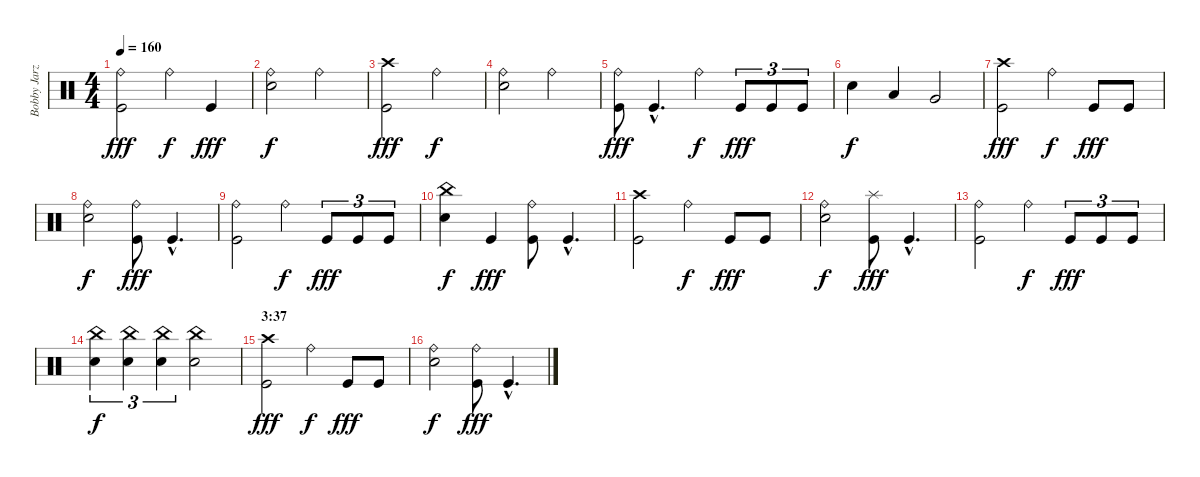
\track ("Bobby Jarzombek" "Bobby Jarz") {instrument percussion}
\staff {score}
\articulation defaults
\ts (4 4)
\tempo 160
\clef neutral
\ks c
("Ride (bell)" "Kick (hit)").2{dy fff} "Ride (bell)".4{dy f} "Kick (hit)".4{dy fff} |
("Ride (bell)" "Electric Snare (hit)").2{dy f} "Ride (bell)".2 |
("Crash high (hit)" "Kick (hit)").2{dy fff} "Ride (bell)".2{dy f} |
("Ride (bell)" "Electric Snare (hit)").2 "Ride (bell)".2 |
("Ride (bell)" "Kick (hit)").8{dy fff} "Kick (hit)"{hac}.4{d} "Ride (bell)".4{dy f} "Kick (hit)".8{tu (3 2) dy fff} "Kick (hit)".8{tu (3 2)} "Kick (hit)".8{tu (3 2)} |
"Electric Snare (hit)".4{dy f} "Low Tom (hit)".4 "Very Low Tom (hit)".2 |
("Crash high (hit)" "Kick (hit)").2{dy fff} "Ride (bell)".4{dy f} "Kick (hit)".8{dy fff} "Kick (hit)".8 |
("Ride (bell)" "Electric Snare (hit)").2{dy f} ("Ride (bell)" "Kick (hit)").8{dy fff} "Kick (hit)"{hac}.4{d} |
("Ride (bell)" "Kick (hit)").2 "Ride (bell)".4{dy f} "Kick (hit)".8{tu (3 2) dy fff} "Kick (hit)".8{tu (3 2)} "Kick (hit)".8{tu (3 2)} |
("China (hit)" "Electric Snare (hit)").4{dy f} "Kick (hit)".4{dy fff} ("Ride (bell)" "Kick (hit)").8 "Kick (hit)"{hac}.4{d} |
("Crash high (hit)" "Kick (hit)").2 "Ride (bell)".4{dy f} "Kick (hit)".8{dy fff} "Kick (hit)".8 |
("Ride (bell)" "Electric Snare (hit)").2{dy f} ("Splash (hit)" "Kick (hit)").8{dy fff} "Kick (hit)"{hac}.4{d} |
("Ride (bell)" "Kick (hit)").2 "Ride (bell)".4{dy f} "Kick (hit)".8{tu (3 2) dy fff} "Kick (hit)".8{tu (3 2)} "Kick (hit)".8{tu (3 2)} |
("China (hit)" "Electric Snare (hit)").4{tu (3 2) dy f} ("China (hit)" "Electric Snare (hit)").4{tu (3 2)} ("China (hit)" "Electric Snare (hit)").4{tu (3 2)} ("China (hit)" "Electric Snare (hit)").2 |
\section ("" "3:37")
("Crash high (hit)" "Kick (hit)").2{dy fff} "Ride (bell)".4{dy f} "Kick (hit)".8{dy fff} "Kick (hit)".8 |
("Ride (bell)" "Electric Snare (hit)").2{dy f} ("Ride (bell)" "Kick (hit)").8{dy fff} "Kick (hit)"{hac}.4{d}
